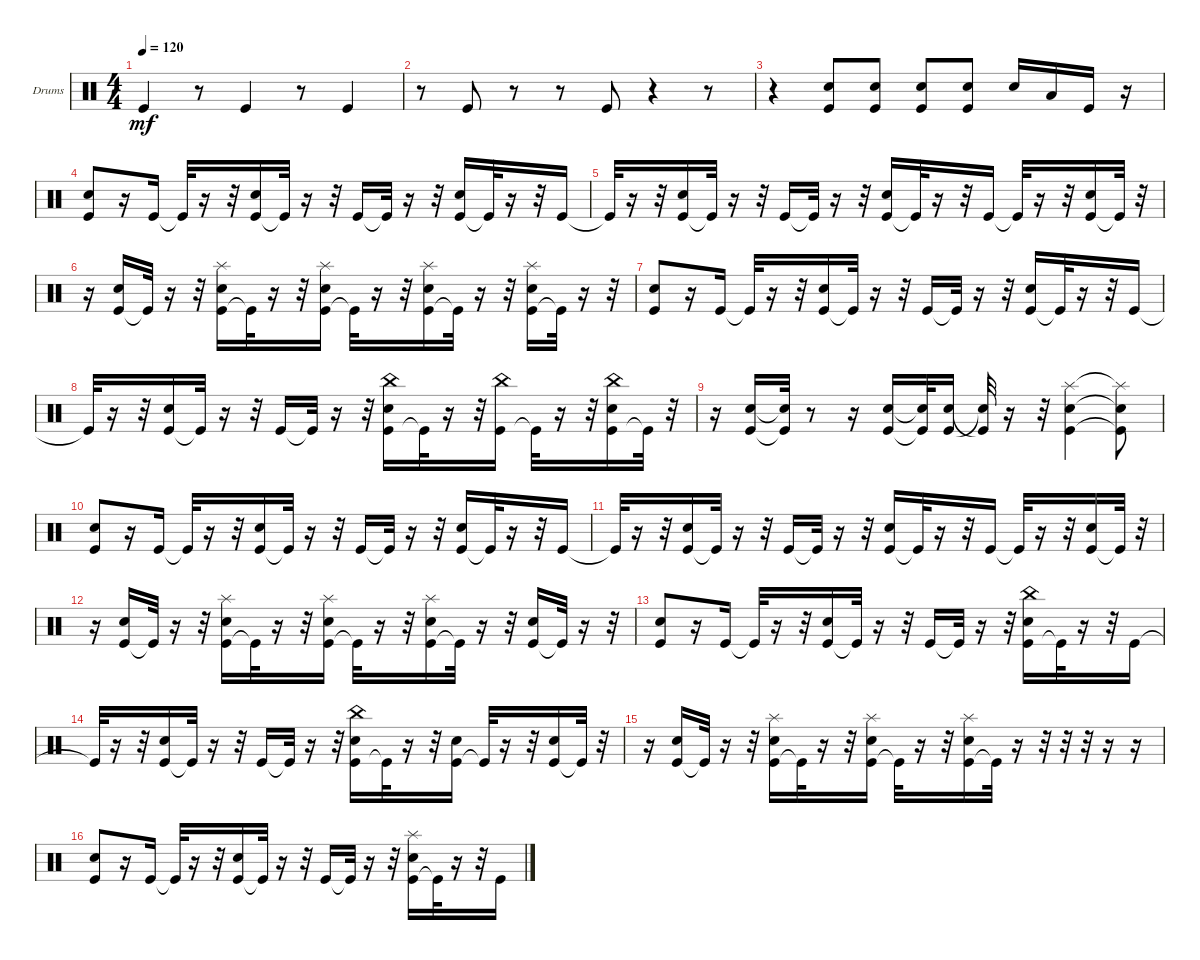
\defaultSystemsLayout 4
\bracketExtendMode groupsimilarinstruments
\firstSystemTrackNameOrientation horizontal
\otherSystemsTrackNameOrientation horizontal
\track ("Drumkit" "Drums") {instrument percussion}
\staff {score}
\articulation defaults
\ts (4 4)
\tempo 120
\clef neutral
\ks c "Kick (hit)".4{dy mf}
r.8 "Kick (hit)".4 r.8 "Kick (hit)".4 |
r.8 "Kick (hit)".8 r.8 r.8 "Kick (hit)".8 r.4 r.8 |
r.4 ("Kick (hit)" "Snare (hit) 2").8 ("Kick (hit)" "Snare (hit) 2").8 ("Kick (hit)" "Snare (hit) 2").8 ("Kick (hit)" "Snare (hit) 2").8 "Snare (hit) 2".16 "Low Tom (hit)".16 "Kick (hit)".16 r.16 |
("Kick (hit)" "Snare (hit) 2").8 r.16 "Kick (hit)".16 "Kick (hit)"{t}.32 r.16 r.32 ("Kick (hit)" "Snare (hit) 2").16 "Kick (hit)"{t}.32 r.16 r.32 "Kick (hit)".16 "Kick (hit)"{t}.32 r.16 r.32 ("Kick (hit)" "Snare (hit) 2").16 "Kick (hit)"{t}.32 r.16 r.32 "Kick (hit)".16 |
"Kick (hit)"{t}.32 r.16 r.32 ("Kick (hit)" "Snare (hit) 2").16 "Kick (hit)"{t}.32 r.16 r.32 "Kick (hit)".16 "Kick (hit)"{t}.32 r.16 r.32 ("Kick (hit)" "Snare (hit) 2").16 "Kick (hit)"{t}.32 r.16 r.32 "Kick (hit)".16 "Kick (hit)"{t}.32 r.16 r.32 ("Kick (hit)" "Snare (hit) 2").16 "Kick (hit)"{t}.32 r.32 |
r.16 ("Kick (hit)" "Snare (hit) 2").16 "Kick (hit)"{t}.32 r.16 r.32 ("Kick (hit)" "Snare (hit) 2" "Splash (hit)").16 "Kick (hit)"{t}.32 r.16 r.32 ("Kick (hit)" "Snare (hit) 2" "Splash (hit)").16 "Kick (hit)"{t}.32 r.16 r.32 ("Kick (hit)" "Snare (hit) 2" "Splash (hit)").16 "Kick (hit)"{t}.32 r.16 r.32 ("Kick (hit)" "Snare (hit) 2" "Splash (hit)").16 "Kick (hit)"{t}.32 r.16 r.32 |
("Kick (hit)" "Snare (hit) 2").8 r.16 "Kick (hit)".16 "Kick (hit)"{t}.32 r.16 r.32 ("Kick (hit)" "Snare (hit) 2").16 "Kick (hit)"{t}.32 r.16 r.32 "Kick (hit)".16 "Kick (hit)"{t}.32 r.16 r.32 ("Kick (hit)" "Snare (hit) 2").16 "Kick (hit)"{t}.32 r.16 r.32 "Kick (hit)".16 |
"Kick (hit)"{t}.32 r.16 r.32 ("Kick (hit)" "Snare (hit) 2").16 "Kick (hit)"{t}.32 r.16 r.32 "Kick (hit)".16 "Kick (hit)"{t}.32 r.16 r.32 ("Kick (hit)" "Snare (hit) 2" "China (hit)").16 "Kick (hit)"{t}.32 r.16 r.32 ("Kick (hit)" "China (hit)").16 "Kick (hit)"{t}.32 r.16 r.32 ("Kick (hit)" "Snare (hit) 2" "China (hit)").16 "Kick (hit)"{t}.32 r.32 |
r.16 ("Snare (hit) 2" "Kick (hit)").16 ("Snare (hit) 2"{t} "Kick (hit)"{t}).32 r.8 r.16 ("Snare (hit) 2" "Kick (hit)").16 ("Snare (hit) 2"{t} "Kick (hit)"{t}).32 ("Kick (hit)" "Snare (hit) 2").16 ("Snare (hit) 2"{t} "Kick (hit)"{t}).32 r.16 r.32 ("Snare (hit) 2" "Kick (hit)" "Splash (hit)").4 ("Snare (hit) 2"{t} "Kick (hit)"{t} "Splash (hit)"{t}).8 |
("Kick (hit)" "Snare (hit) 2").8 r.16 "Kick (hit)".16 "Kick (hit)"{t}.32 r.16 r.32 ("Kick (hit)" "Snare (hit) 2").16 "Kick (hit)"{t}.32 r.16 r.32 "Kick (hit)".16 "Kick (hit)"{t}.32 r.16 r.32 ("Kick (hit)" "Snare (hit) 2").16 "Kick (hit)"{t}.32 r.16 r.32 "Kick (hit)".16 |
"Kick (hit)"{t}.32 r.16 r.32 ("Kick (hit)" "Snare (hit) 2").16 "Kick (hit)"{t}.32 r.16 r.32 "Kick (hit)".16 "Kick (hit)"{t}.32 r.16 r.32 ("Kick (hit)" "Snare (hit) 2").16 "Kick (hit)"{t}.32 r.16 r.32 "Kick (hit)".16 "Kick (hit)"{t}.32 r.16 r.32 ("Kick (hit)" "Snare (hit) 2").16 "Kick (hit)"{t}.32 r.32 |
r.16 ("Kick (hit)" "Snare (hit) 2").16 "Kick (hit)"{t}.32 r.16 r.32 ("Kick (hit)" "Snare (hit) 2" "Splash (hit)").16 "Kick (hit)"{t}.32 r.16 r.32 ("Kick (hit)" "Snare (hit) 2" "Splash (hit)").16 "Kick (hit)"{t}.32 r.16 r.32 ("Kick (hit)" "Snare (hit) 2" "Splash (hit)").16 "Kick (hit)"{t}.32 r.16 r.32 ("Kick (hit)" "Snare (hit) 2").16 "Kick (hit)"{t}.32 r.16 r.32 |
("Kick (hit)" "Snare (hit) 2").8 r.16 "Kick (hit)".16 "Kick (hit)"{t}.32 r.16 r.32 ("Kick (hit)" "Snare (hit) 2").16 "Kick (hit)"{t}.32 r.16 r.32 "Kick (hit)".16 "Kick (hit)"{t}.32 r.16 r.32 ("Kick (hit)" "Snare (hit) 2" "China (hit)").16 "Kick (hit)"{t}.32 r.16 r.32 "Kick (hit)".16 |
"Kick (hit)"{t}.32 r.16 r.32 ("Kick (hit)" "Snare (hit) 2").16 "Kick (hit)"{t}.32 r.16 r.32 "Kick (hit)".16 "Kick (hit)"{t}.32 r.16 r.32 ("Kick (hit)" "Snare (hit) 2" "China (hit)").16 "Kick (hit)"{t}.32 r.16 r.32 ("Kick (hit)" "Snare (hit) 2").16 "Kick (hit)"{t}.32 r.16 r.32 ("Kick (hit)" "Snare (hit) 2").16 "Kick (hit)"{t}.32 r.32 |
r.16 ("Kick (hit)" "Snare (hit) 2").16 "Kick (hit)"{t}.32 r.16 r.32 ("Kick (hit)" "Snare (hit) 2" "Splash (hit)").16 "Kick (hit)"{t}.32 r.16 r.32 ("Kick (hit)" "Snare (hit) 2" "Splash (hit)").16 "Kick (hit)"{t}.32 r.16 r.32 ("Kick (hit)" "Snare (hit) 2" "Splash (hit)").16 "Kick (hit)"{t}.32 r.16 r.32 r.32 r.32 r.16 r.16 |
("Kick (hit)" "Snare (hit) 2").8 r.16 "Kick (hit)".16 "Kick (hit)"{t}.32 r.16 r.32 ("Kick (hit)" "Snare (hit) 2").16 "Kick (hit)"{t}.32 r.16 r.32 "Kick (hit)".16 "Kick (hit)"{t}.32 r.16 r.32 ("Kick (hit)" "Snare (hit) 2" "Splash (hit)").16 "Kick (hit)"{t}.32 r.16 r.32 "Kick (hit)".16
